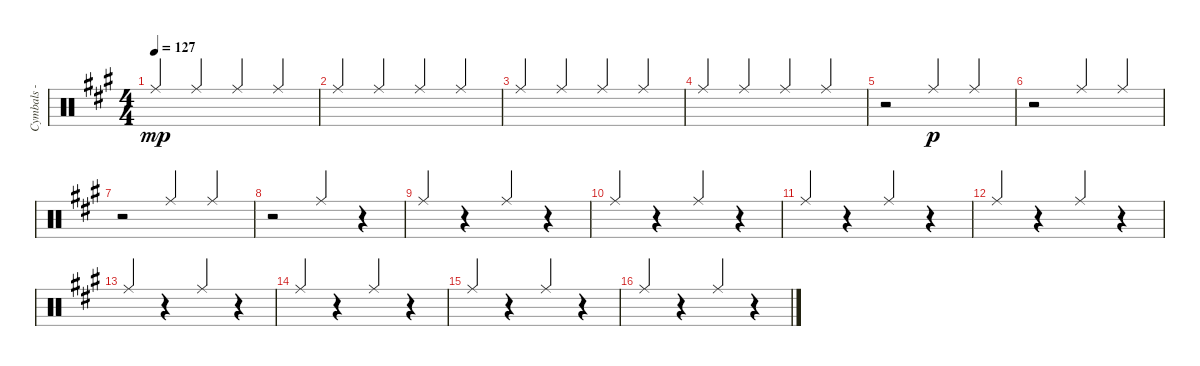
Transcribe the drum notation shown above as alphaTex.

\track ("Cymbals - ride" "Cymbals - ") {instrument percussion}
\staff {score}
\articulation defaults
\ts (4 4)
\tempo 127
\clef neutral
\ks a "Ride (middle)".4{dy mp beam Up} "Ride (middle)".4{beam Up} "Ride (middle)".4{beam Up} "Ride (middle)".4{beam Up}
|
"Ride (middle)".4{beam Up} "Ride (middle)".4{beam Up} "Ride (middle)".4{beam Up} "Ride (middle)".4{beam Up} |
"Ride (middle)".4{beam Up} "Ride (middle)".4{beam Up} "Ride (middle)".4{beam Up} "Ride (middle)".4{beam Up} |
"Ride (middle)".4{beam Up} "Ride (middle)".4{beam Up} "Ride (middle)".4{beam Up} "Ride (middle)".4{beam Up} |
r.2 "Ride (middle)".4{dy p beam Up} "Ride (middle)".4{beam Up} |
r.2 "Ride (middle)".4{beam Up} "Ride (middle)".4{beam Up} |
r.2 "Ride (middle)".4{beam Up} "Ride (middle)".4{beam Up} |
r.2 "Ride (middle)".4{beam Up} r.4 |
"Ride (middle)".4{beam Up} r.4 "Ride (middle)".4{beam Up} r.4 |
"Ride (middle)".4{beam Up} r.4 "Ride (middle)".4{beam Up} r.4 |
"Ride (middle)".4{beam Up} r.4 "Ride (middle)".4{beam Up} r.4 |
"Ride (middle)".4{beam Up} r.4 "Ride (middle)".4{beam Up} r.4 |
"Ride (middle)".4{beam Up} r.4 "Ride (middle)".4{beam Up} r.4 |
"Ride (middle)".4{beam Up} r.4 "Ride (middle)".4{beam Up} r.4 |
"Ride (middle)".4{beam Up} r.4 "Ride (middle)".4{beam Up} r.4 |
"Ride (middle)".4{beam Up} r.4 "Ride (middle)".4{beam Up} r.4
